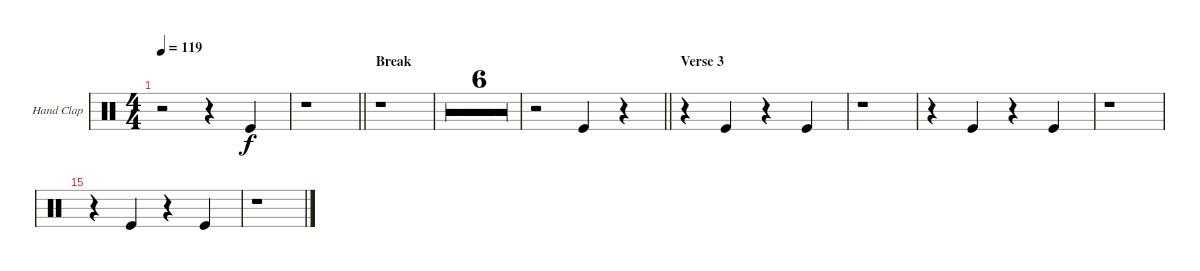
\defaultSystemsLayout 4
\bracketExtendMode groupsimilarinstruments
\useSystemSignSeparator
\multiBarRest
\multiTrackTrackNamePolicy allsystems
\firstSystemTrackNameMode fullname
\firstSystemTrackNameOrientation horizontal
\otherSystemsTrackNameOrientation horizontal
\defaultBarNumberDisplay FirstOfSystem
\track ("Hand Clap" "H-Clap") {multiBarRest instrument percussion}
\staff {score}
\articulation defaults
\ts (4 4)
\tempo 119
\clef neutral
\ks aminor
r.2{dy f} r.4 "Kick (hit)".4 |
\barLineRight lightlight
r.1 |
\section ("" "Break")
r.1 |
r.1 |
r.1 |
r.1 |
r.1 |
r.1 |
r.1 |
\barLineRight lightlight
r.2 "Kick (hit)".4 r.4 |
\section ("" "Verse 3")
r.4 "Kick (hit)".4 r.4 "Kick (hit)".4 |
r.1 |
r.4 "Kick (hit)".4 r.4 "Kick (hit)".4 |
r.1 |
r.4 "Kick (hit)".4 r.4 "Kick (hit)".4 |
r.1
